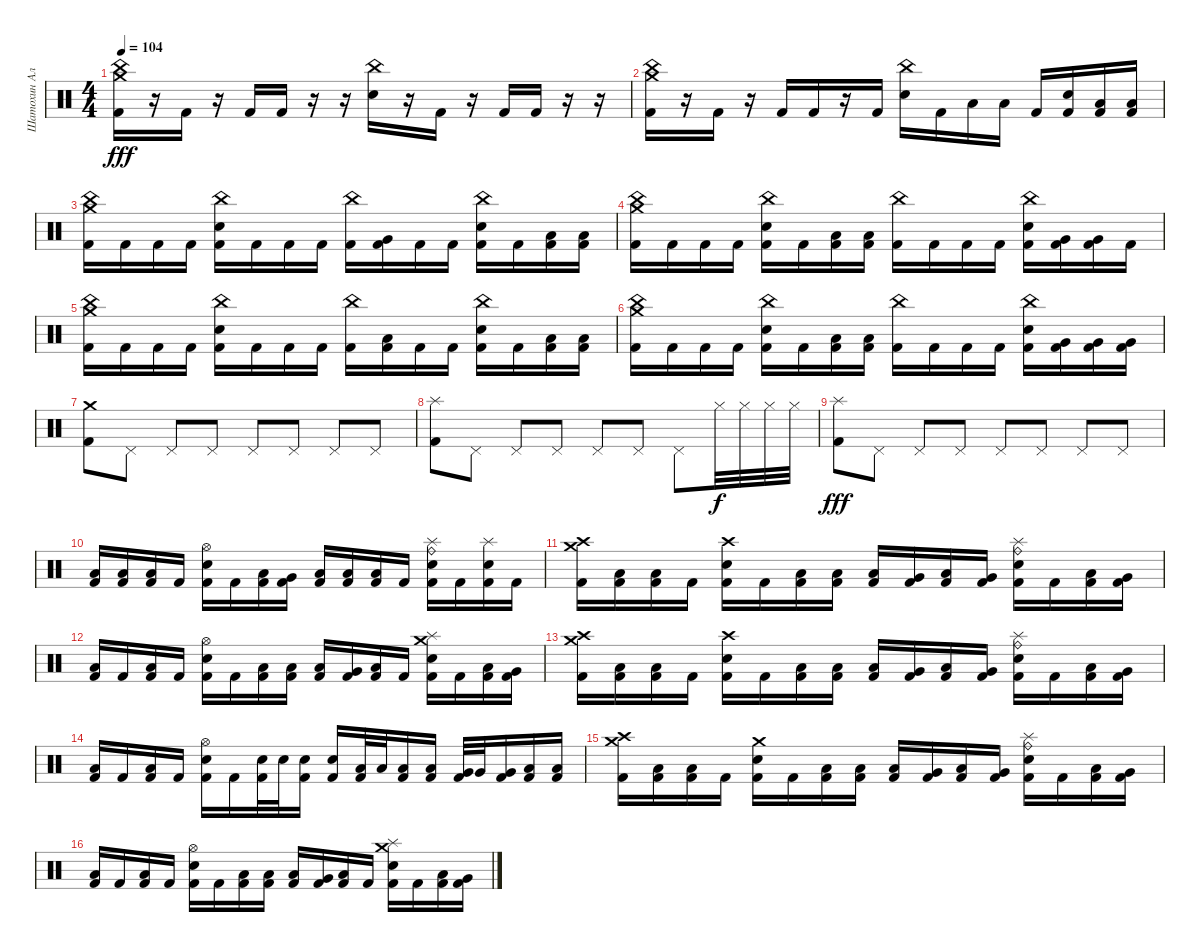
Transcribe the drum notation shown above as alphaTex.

\track ("Шатохин Алексей" "Шатохин Ал") {instrument percussion}
\staff {score}
\articulation defaults
\ts (4 4)
\tempo 104
\clef neutral
\ks c
("Crash medium (hit)" "China (hit)" "Kick (hit) 2").16{dy fff} r.16 "Kick (hit) 2".16 r.16 "Kick (hit) 2".16 "Kick (hit) 2".16 r.16 r.16 ("China (hit)" "Electric Snare (hit)").16 r.16 "Kick (hit) 2".16 r.16 "Kick (hit) 2".16 "Kick (hit) 2".16 r.16 r.16 |
("Crash medium (hit)" "China (hit)" "Kick (hit) 2").16 r.16 "Kick (hit) 2".16 r.16 "Kick (hit) 2".16 "Kick (hit) 2".16 r.16 "Kick (hit) 2".16 ("China (hit)" "Electric Snare (hit)").16 "Kick (hit) 2".16 "Low Tom (hit)".16 "Low Tom (hit)".16 "Kick (hit) 2".16 ("Electric Snare (hit)" "Kick (hit) 2").16 ("Low Floor Tom (hit)" "Kick (hit) 2").16 ("Low Floor Tom (hit)" "Kick (hit) 2").16 |
("Crash medium (hit)" "China (hit)" "Kick (hit) 2").16 "Kick (hit) 2".16 "Kick (hit) 2".16 "Kick (hit) 2".16 ("China (hit)" "Electric Snare (hit)" "Kick (hit) 2").16 "Kick (hit) 2".16 "Kick (hit) 2".16 "Kick (hit) 2".16 ("China (hit)" "Kick (hit) 2").16 ("Very Low Tom (hit)" "Kick (hit) 2").16 "Kick (hit) 2".16 "Kick (hit) 2".16 ("China (hit)" "Electric Snare (hit)" "Kick (hit) 2").16 "Kick (hit) 2".16 ("Low Tom (hit)" "Kick (hit) 2").16 ("Low Tom (hit)" "Kick (hit) 2").16 |
("Crash medium (hit)" "China (hit)" "Kick (hit) 2").16 "Kick (hit) 2".16 "Kick (hit) 2".16 "Kick (hit) 2".16 ("China (hit)" "Electric Snare (hit)" "Kick (hit) 2").16 "Kick (hit) 2".16 ("Low Tom (hit)" "Kick (hit) 2").16 ("Low Tom (hit)" "Kick (hit) 2").16 ("China (hit)" "Kick (hit) 2").16 "Kick (hit) 2".16 "Kick (hit) 2".16 "Kick (hit) 2".16 ("China (hit)" "Electric Snare (hit)" "Kick (hit) 2").16 ("Very Low Tom (hit)" "Kick (hit) 2").16 ("Very Low Tom (hit)" "Kick (hit) 2").16 "Kick (hit) 2".16 |
("Crash medium (hit)" "China (hit)" "Kick (hit) 2").16 "Kick (hit) 2".16 "Kick (hit) 2".16 "Kick (hit) 2".16 ("China (hit)" "Electric Snare (hit)" "Kick (hit) 2").16 "Kick (hit) 2".16 "Kick (hit) 2".16 "Kick (hit) 2".16 ("China (hit)" "Kick (hit) 2").16 ("Low Tom (hit)" "Kick (hit) 2").16 "Kick (hit) 2".16 "Kick (hit) 2".16 ("China (hit)" "Electric Snare (hit)" "Kick (hit) 2").16 "Kick (hit) 2".16 ("Low Floor Tom (hit)" "Kick (hit) 2").16 ("Low Floor Tom (hit)" "Kick (hit) 2").16 |
("Crash medium (hit)" "China (hit)" "Kick (hit) 2").16 "Kick (hit) 2".16 "Kick (hit) 2".16 "Kick (hit) 2".16 ("China (hit)" "Electric Snare (hit)" "Kick (hit) 2").16 "Kick (hit) 2".16 ("Low Tom (hit)" "Kick (hit) 2").16 ("Low Tom (hit)" "Kick (hit) 2").16 ("China (hit)" "Kick (hit) 2").16 "Kick (hit) 2".16 "Kick (hit) 2".16 "Kick (hit) 2".16 ("China (hit)" "Electric Snare (hit)" "Kick (hit) 2").16 ("Very Low Tom (hit)" "Kick (hit) 2").16 ("Very Low Tom (hit)" "Kick (hit) 2").16 ("Very Low Tom (hit)" "Kick (hit) 2").16 |
("Crash medium (hit)" "Kick (hit) 2").8 "Pedal Hi-Hat (hit)".8 "Pedal Hi-Hat (hit)".8 "Pedal Hi-Hat (hit)".8 "Pedal Hi-Hat (hit)".8 "Pedal Hi-Hat (hit)".8 "Pedal Hi-Hat (hit)".8 "Pedal Hi-Hat (hit)".8 |
("Splash (hit)" "Kick (hit) 2").8 "Pedal Hi-Hat (hit)".8 "Pedal Hi-Hat (hit)".8 "Pedal Hi-Hat (hit)".8 "Pedal Hi-Hat (hit)".8 "Pedal Hi-Hat (hit)".8 "Pedal Hi-Hat (hit)".8 "Hi-Hat (closed)".32{dy f} "Hi-Hat (closed)".32 "Hi-Hat (closed)".32 "Hi-Hat (closed)".32 |
("Splash (hit)" "Kick (hit) 2").8{dy fff} "Pedal Hi-Hat (hit)".8 "Pedal Hi-Hat (hit)".8 "Pedal Hi-Hat (hit)".8 "Pedal Hi-Hat (hit)".8 "Pedal Hi-Hat (hit)".8 "Pedal Hi-Hat (hit)".8 "Pedal Hi-Hat (hit)".8 |
("Low Floor Tom (hit)" "Kick (hit) 2").16 ("Low Tom (hit)" "Kick (hit) 2").16 ("Low Floor Tom (hit)" "Kick (hit) 2").16 "Kick (hit) 2".16 ("Hi-Hat (open)" "Electric Snare (hit)" "Kick (hit) 2").16 "Kick (hit) 2".16 ("Low Floor Tom (hit)" "Kick (hit) 2").16 ("Very Low Tom (hit)" "Kick (hit) 2").16 ("Low Floor Tom (hit)" "Kick (hit) 2").16 ("Low Tom (hit)" "Kick (hit) 2").16 ("Low Floor Tom (hit)" "Kick (hit) 2").16 "Kick (hit) 2".16 ("Splash (hit)" "Ride (bell)" "Electric Snare (hit)" "Kick (hit) 2").16 "Kick (hit) 2".16 ("Splash (hit)" "Electric Snare (hit)" "Kick (hit) 2").16 "Kick (hit) 2".16 |
("Crash high (hit)" "Crash medium (hit)" "Kick (hit) 2").16 ("Low Tom (hit)" "Kick (hit) 2").16 ("Low Floor Tom (hit)" "Kick (hit) 2").16 "Kick (hit) 2".16 ("Crash high (hit)" "Electric Snare (hit)" "Kick (hit) 2").16 "Kick (hit) 2".16 ("Low Floor Tom (hit)" "Kick (hit) 2").16 ("Low Tom (hit)" "Kick (hit) 2").16 ("Low Floor Tom (hit)" "Kick (hit) 2").16 ("Very Low Tom (hit)" "Kick (hit) 2").16 ("Low Floor Tom (hit)" "Kick (hit) 2").16 ("Very Low Tom (hit)" "Kick (hit) 2").16 ("Splash (hit)" "Ride (bell)" "Electric Snare (hit)" "Kick (hit) 2").16 "Kick (hit) 2".16 ("Low Floor Tom (hit)" "Kick (hit) 2").16 ("Very Low Tom (hit)" "Kick (hit) 2").16 |
("Low Floor Tom (hit)" "Kick (hit) 2").16 "Kick (hit) 2".16 ("Low Floor Tom (hit)" "Kick (hit) 2").16 "Kick (hit) 2".16 ("Hi-Hat (open)" "Electric Snare (hit)" "Kick (hit) 2").16 "Kick (hit) 2".16 ("Low Floor Tom (hit)" "Kick (hit) 2").16 ("Low Tom (hit)" "Kick (hit) 2").16 ("Low Floor Tom (hit)" "Kick (hit) 2").16 ("Very Low Tom (hit)" "Kick (hit) 2").16 ("Low Floor Tom (hit)" "Kick (hit) 2").16 "Kick (hit) 2".16 ("Splash (hit)" "Crash medium (hit)" "Electric Snare (hit)" "Kick (hit) 2").16 "Kick (hit) 2".16 ("Low Floor Tom (hit)" "Kick (hit) 2").16 ("Very Low Tom (hit)" "Kick (hit) 2").16 |
("Crash high (hit)" "Crash medium (hit)" "Kick (hit) 2").16 ("Low Tom (hit)" "Kick (hit) 2").16 ("Low Floor Tom (hit)" "Kick (hit) 2").16 "Kick (hit) 2".16 ("Crash high (hit)" "Electric Snare (hit)" "Kick (hit) 2").16 "Kick (hit) 2".16 ("Low Floor Tom (hit)" "Kick (hit) 2").16 ("Low Tom (hit)" "Kick (hit) 2").16 ("Low Floor Tom (hit)" "Kick (hit) 2").16 ("Very Low Tom (hit)" "Kick (hit) 2").16 ("Low Floor Tom (hit)" "Kick (hit) 2").16 ("Very Low Tom (hit)" "Kick (hit) 2").16 ("Splash (hit)" "Ride (bell)" "Electric Snare (hit)" "Kick (hit) 2").16 "Kick (hit) 2".16 ("Low Floor Tom (hit)" "Kick (hit) 2").16 ("Very Low Tom (hit)" "Kick (hit) 2").16 |
("Low Floor Tom (hit)" "Kick (hit) 2").16 "Kick (hit) 2".16 ("Low Floor Tom (hit)" "Kick (hit) 2").16 "Kick (hit) 2".16 ("Hi-Hat (open)" "Electric Snare (hit)" "Kick (hit) 2").16 "Kick (hit) 2".16 ("Electric Snare (hit)" "Kick (hit) 2").32 "Electric Snare (hit)".32 ("Electric Snare (hit)" "Kick (hit) 2").16 ("Electric Snare (hit)" "Kick (hit) 2").16 ("Low Tom (hit)" "Kick (hit) 2").32 "Low Tom (hit)".32 ("Low Tom (hit)" "Kick (hit) 2").16 ("Low Tom (hit)" "Kick (hit) 2").16 ("Very Low Tom (hit)" "Kick (hit) 2").32 "Very Low Tom (hit)".32 ("Very Low Tom (hit)" "Kick (hit) 2").16 ("Low Floor Tom (hit)" "Kick (hit) 2").16 ("Low Floor Tom (hit)" "Kick (hit) 2").16 |
("Crash high (hit)" "Crash medium (hit)" "Kick (hit) 2").16 ("Low Tom (hit)" "Kick (hit) 2").16 ("Low Floor Tom (hit)" "Kick (hit) 2").16 "Kick (hit) 2".16 ("Crash medium (hit)" "Electric Snare (hit)" "Kick (hit) 2").16 "Kick (hit) 2".16 ("Low Floor Tom (hit)" "Kick (hit) 2").16 ("Low Tom (hit)" "Kick (hit) 2").16 ("Low Floor Tom (hit)" "Kick (hit) 2").16 ("Very Low Tom (hit)" "Kick (hit) 2").16 ("Low Floor Tom (hit)" "Kick (hit) 2").16 ("Very Low Tom (hit)" "Kick (hit) 2").16 ("Splash (hit)" "Ride (bell)" "Electric Snare (hit)" "Kick (hit) 2").16 "Kick (hit) 2".16 ("Low Floor Tom (hit)" "Kick (hit) 2").16 ("Very Low Tom (hit)" "Kick (hit) 2").16 |
("Low Floor Tom (hit)" "Kick (hit) 2").16 "Kick (hit) 2".16 ("Low Floor Tom (hit)" "Kick (hit) 2").16 "Kick (hit) 2".16 ("Hi-Hat (open)" "Electric Snare (hit)" "Kick (hit) 2").16 "Kick (hit) 2".16 ("Low Floor Tom (hit)" "Kick (hit) 2").16 ("Low Tom (hit)" "Kick (hit) 2").16 ("Low Floor Tom (hit)" "Kick (hit) 2").16 ("Very Low Tom (hit)" "Kick (hit) 2").16 ("Low Floor Tom (hit)" "Kick (hit) 2").16 "Kick (hit) 2".16 ("Splash (hit)" "Crash medium (hit)" "Electric Snare (hit)" "Kick (hit) 2").16 "Kick (hit) 2".16 ("Low Floor Tom (hit)" "Kick (hit) 2").16 ("Very Low Tom (hit)" "Kick (hit) 2").16
